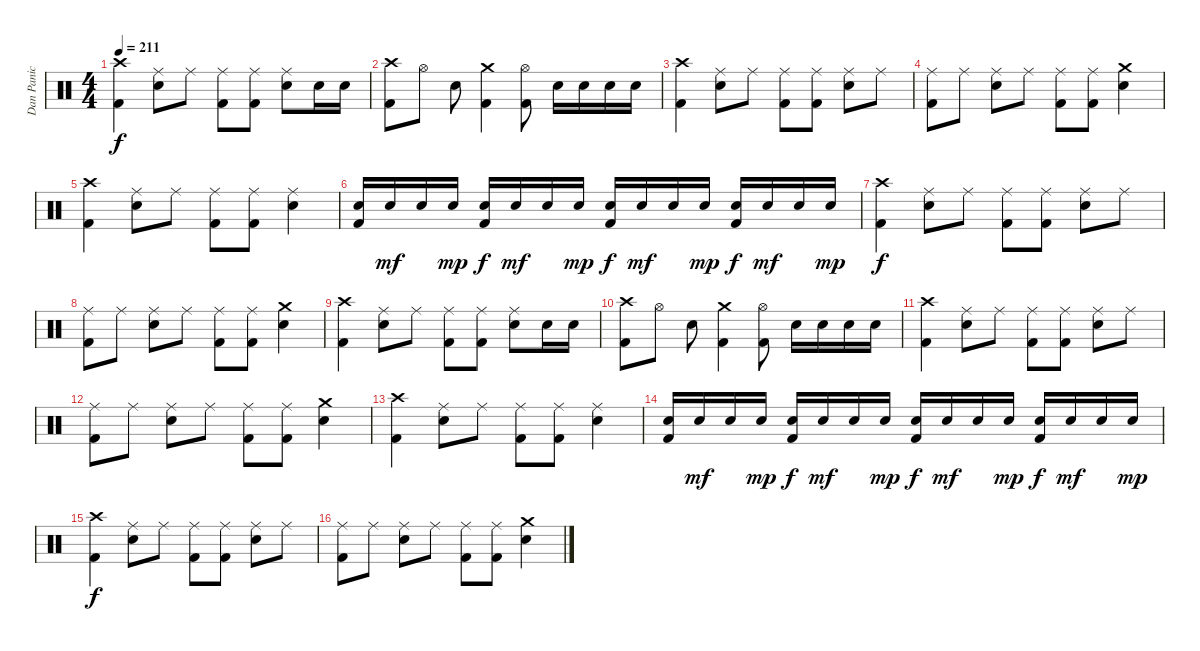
\track ("Dan Panic" "Dan Panic") {instrument percussion}
\staff {score}
\articulation defaults
\ts (4 4)
\tempo 211
\clef neutral
\ks c
("Crash high (hit)" "Kick (hit) 2").4{dy f} ("Ride (middle)" "Electric Snare (hit)").8 "Ride (middle)".8 ("Ride (middle)" "Kick (hit) 2").8 ("Ride (middle)" "Kick (hit) 2").8 ("Ride (middle)" "Electric Snare (hit)").8 "Electric Snare (hit)".16 "Electric Snare (hit)".16 |
("Crash high (hit)" "Kick (hit) 2").8 "Hi-Hat (open)".8 "Electric Snare (hit)".8 ("Crash medium (hit)" "Kick (hit) 2").4 ("Hi-Hat (open)" "Kick (hit) 2").8 "Electric Snare (hit)".16 "Electric Snare (hit)".16 "Electric Snare (hit)".16 "Electric Snare (hit)".16 |
("Crash high (hit)" "Kick (hit) 2").4 ("Ride (middle)" "Electric Snare (hit)").8 "Ride (middle)".8 ("Ride (middle)" "Kick (hit) 2").8 ("Ride (middle)" "Kick (hit) 2").8 ("Ride (middle)" "Electric Snare (hit)").8 "Ride (middle)".8 |
("Ride (middle)" "Kick (hit) 2").8 "Ride (middle)".8 ("Ride (middle)" "Electric Snare (hit)").8 "Ride (middle)".8 ("Ride (middle)" "Kick (hit) 2").8 ("Ride (middle)" "Kick (hit) 2").8 ("Crash medium (hit)" "Electric Snare (hit)").4 |
("Crash high (hit)" "Kick (hit) 2").4 ("Ride (middle)" "Electric Snare (hit)").8 "Ride (middle)".8 ("Ride (middle)" "Kick (hit) 2").8 ("Ride (middle)" "Kick (hit) 2").8 ("Ride (middle)" "Electric Snare (hit)").4 |
("Electric Snare (hit)" "Kick (hit) 2").16 "Electric Snare (hit)".16{dy mf} "Electric Snare (hit)".16 "Electric Snare (hit)".16{dy mp} ("Electric Snare (hit)" "Kick (hit) 2").16{dy f} "Electric Snare (hit)".16{dy mf} "Electric Snare (hit)".16 "Electric Snare (hit)".16{dy mp} ("Electric Snare (hit)" "Kick (hit) 2").16{dy f} "Electric Snare (hit)".16{dy mf} "Electric Snare (hit)".16 "Electric Snare (hit)".16{dy mp} ("Electric Snare (hit)" "Kick (hit) 2").16{dy f} "Electric Snare (hit)".16{dy mf} "Electric Snare (hit)".16 "Electric Snare (hit)".16{dy mp} |
("Crash high (hit)" "Kick (hit) 2").4{dy f} ("Ride (middle)" "Electric Snare (hit)").8 "Ride (middle)".8 ("Ride (middle)" "Kick (hit) 2").8 ("Ride (middle)" "Kick (hit) 2").8 ("Ride (middle)" "Electric Snare (hit)").8 "Ride (middle)".8 |
("Ride (middle)" "Kick (hit) 2").8 "Ride (middle)".8 ("Ride (middle)" "Electric Snare (hit)").8 "Ride (middle)".8 ("Ride (middle)" "Kick (hit) 2").8 ("Ride (middle)" "Kick (hit) 2").8 ("Crash medium (hit)" "Electric Snare (hit)").4 |
("Crash high (hit)" "Kick (hit) 2").4 ("Ride (middle)" "Electric Snare (hit)").8 "Ride (middle)".8 ("Ride (middle)" "Kick (hit) 2").8 ("Ride (middle)" "Kick (hit) 2").8 ("Ride (middle)" "Electric Snare (hit)").8 "Electric Snare (hit)".16 "Electric Snare (hit)".16 |
("Crash high (hit)" "Kick (hit) 2").8 "Hi-Hat (open)".8 "Electric Snare (hit)".8 ("Crash medium (hit)" "Kick (hit) 2").4 ("Hi-Hat (open)" "Kick (hit) 2").8 "Electric Snare (hit)".16 "Electric Snare (hit)".16 "Electric Snare (hit)".16 "Electric Snare (hit)".16 |
("Crash high (hit)" "Kick (hit) 2").4 ("Ride (middle)" "Electric Snare (hit)").8 "Ride (middle)".8 ("Ride (middle)" "Kick (hit) 2").8 ("Ride (middle)" "Kick (hit) 2").8 ("Ride (middle)" "Electric Snare (hit)").8 "Ride (middle)".8 |
("Ride (middle)" "Kick (hit) 2").8 "Ride (middle)".8 ("Ride (middle)" "Electric Snare (hit)").8 "Ride (middle)".8 ("Ride (middle)" "Kick (hit) 2").8 ("Ride (middle)" "Kick (hit) 2").8 ("Crash medium (hit)" "Electric Snare (hit)").4 |
("Crash high (hit)" "Kick (hit) 2").4 ("Ride (middle)" "Electric Snare (hit)").8 "Ride (middle)".8 ("Ride (middle)" "Kick (hit) 2").8 ("Ride (middle)" "Kick (hit) 2").8 ("Ride (middle)" "Electric Snare (hit)").4 |
("Electric Snare (hit)" "Kick (hit) 2").16 "Electric Snare (hit)".16{dy mf} "Electric Snare (hit)".16 "Electric Snare (hit)".16{dy mp} ("Electric Snare (hit)" "Kick (hit) 2").16{dy f} "Electric Snare (hit)".16{dy mf} "Electric Snare (hit)".16 "Electric Snare (hit)".16{dy mp} ("Electric Snare (hit)" "Kick (hit) 2").16{dy f} "Electric Snare (hit)".16{dy mf} "Electric Snare (hit)".16 "Electric Snare (hit)".16{dy mp} ("Electric Snare (hit)" "Kick (hit) 2").16{dy f} "Electric Snare (hit)".16{dy mf} "Electric Snare (hit)".16 "Electric Snare (hit)".16{dy mp} |
("Crash high (hit)" "Kick (hit) 2").4{dy f} ("Ride (middle)" "Electric Snare (hit)").8 "Ride (middle)".8 ("Ride (middle)" "Kick (hit) 2").8 ("Ride (middle)" "Kick (hit) 2").8 ("Ride (middle)" "Electric Snare (hit)").8 "Ride (middle)".8 |
("Ride (middle)" "Kick (hit) 2").8 "Ride (middle)".8 ("Ride (middle)" "Electric Snare (hit)").8 "Ride (middle)".8 ("Ride (middle)" "Kick (hit) 2").8 ("Ride (middle)" "Kick (hit) 2").8 ("Crash medium (hit)" "Electric Snare (hit)").4
